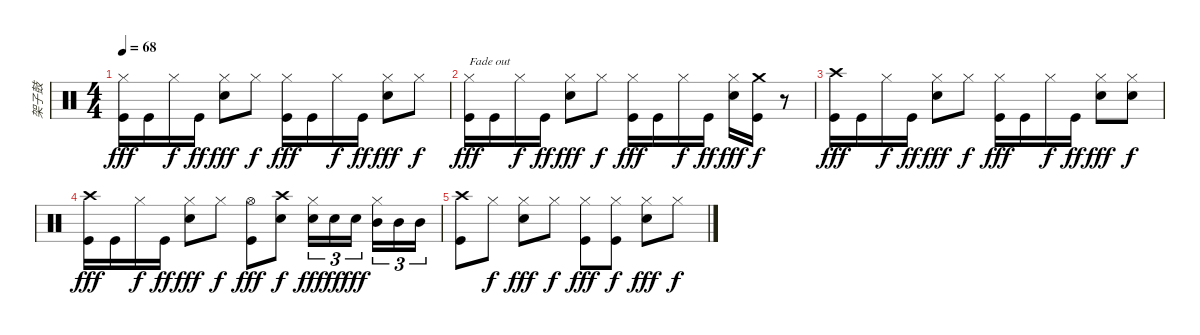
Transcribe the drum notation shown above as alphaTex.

\track ("架子鼓" "架子鼓") {instrument percussion}
\staff {score}
\articulation defaults
\ts (4 4)
\tempo 68
\clef neutral
\ks c
("Hi-Hat (closed)" "Kick (hit)").16{dy fff} "Kick (hit)".16 "Hi-Hat (closed)".16{dy f} "Kick (hit)".16{dy ff} ("Hi-Hat (closed)" "Snare (hit) 2").8{dy fff} "Hi-Hat (closed)".8{dy f} ("Hi-Hat (closed)" "Kick (hit)").16{dy fff} "Kick (hit)".16 "Hi-Hat (closed)".16{dy f} "Kick (hit)".16{dy ff} ("Hi-Hat (closed)" "Snare (hit) 2").8{dy fff} "Hi-Hat (closed)".8{dy f} |
("Hi-Hat (closed)" "Kick (hit)").16{txt "Fade out" dy fff volume 8} "Kick (hit)".16 "Hi-Hat (closed)".16{dy f} "Kick (hit)".16{dy ff} ("Hi-Hat (closed)" "Snare (hit) 2").8{dy fff} "Hi-Hat (closed)".8{dy f} ("Hi-Hat (closed)" "Kick (hit)").16{dy fff} "Kick (hit)".16 "Hi-Hat (closed)".16{dy f} "Kick (hit)".16{dy ff} ("Hi-Hat (closed)" "Snare (hit) 2").16{dy fff} ("Crash medium (hit)" "Kick (hit)").16{dy f} r.8 |
("Crash high (hit)" "Kick (hit)").16{dy fff} "Kick (hit)".16 "Hi-Hat (closed)".16{dy f} "Kick (hit)".16{dy ff} ("Hi-Hat (closed)" "Snare (hit) 2").8{dy fff} "Hi-Hat (closed)".8{dy f} ("Hi-Hat (closed)" "Kick (hit)").16{dy fff} "Kick (hit)".16 "Hi-Hat (closed)".16{dy f} "Kick (hit)".16{dy ff} ("Hi-Hat (closed)" "Snare (hit) 2").8{dy fff} ("Hi-Hat (closed)" "Snare (hit) 2").8{dy f} |
("Crash high (hit)" "Kick (hit)").16{dy fff volume 0} "Kick (hit)".16 "Hi-Hat (closed)".16{dy f} "Kick (hit)".16{dy ff} ("Hi-Hat (closed)" "Snare (hit) 2").8{dy fff} "Hi-Hat (closed)".8{dy f} ("Hi-Hat (open)" "Kick (hit)").8{dy fff} ("Crash high (hit)" "Snare (hit) 2").8{dy f} ("Hi-Hat (closed)" "Snare (hit) 2").16{tu (3 2) dy fff} "Snare (hit) 2".16{tu (3 2) dy ff} "Snare (hit) 2".16{tu (3 2) dy fff} ("Hi-Hat (closed)" "Mid Tom (hit)").16{tu (3 2)} "Mid Tom (hit)".16{tu (3 2)} "Mid Tom (hit)".16{tu (3 2)} |
("Crash high (hit)" "Kick (hit)").8 "Hi-Hat (closed)".8{dy f} ("Hi-Hat (closed)" "Snare (hit) 2").8{dy fff} "Hi-Hat (closed)".8{dy f} ("Hi-Hat (closed)" "Kick (hit)").8{dy fff} ("Hi-Hat (closed)" "Kick (hit)").8{dy f} ("Hi-Hat (closed)" "Snare (hit) 2").8{dy fff} "Hi-Hat (closed)".8{dy f}
